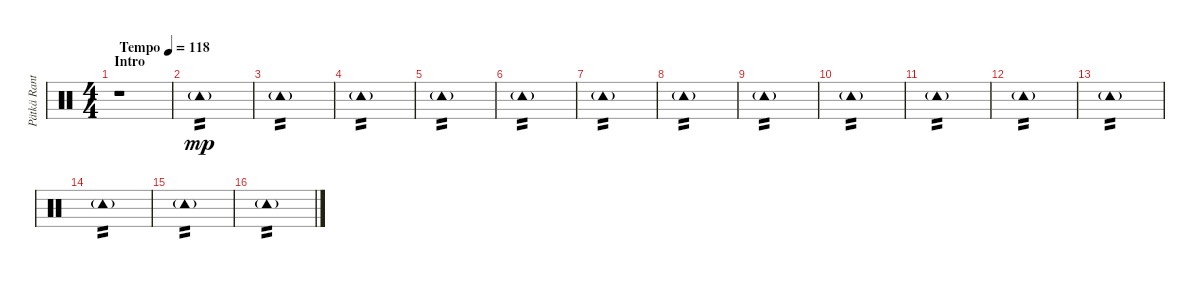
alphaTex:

\track ("Pätkä Rantala (Drums)" "Pätkä Rant") {instrument percussion}
\staff {score}
\articulation defaults
\ts (4 4)
\section ("" "Intro")
\tempo (118 "Tempo")
\clef neutral
\ks c
r.1{dy mp} |
"Tambourine (hit)"{g}.1{tp 2} |
"Tambourine (hit)"{g}.1{tp 2} |
"Tambourine (hit)"{g}.1{tp 2} |
"Tambourine (hit)"{g}.1{tp 2} |
"Tambourine (hit)"{g}.1{tp 2} |
"Tambourine (hit)"{g}.1{tp 2} |
"Tambourine (hit)"{g}.1{tp 2} |
"Tambourine (hit)"{g}.1{tp 2} |
"Tambourine (hit)"{g}.1{tp 2} |
"Tambourine (hit)"{g}.1{tp 2} |
"Tambourine (hit)"{g}.1{tp 2} |
"Tambourine (hit)"{g}.1{tp 2} |
"Tambourine (hit)"{g}.1{tp 2} |
"Tambourine (hit)"{g}.1{tp 2} |
"Tambourine (hit)"{g}.1{tp 2}
